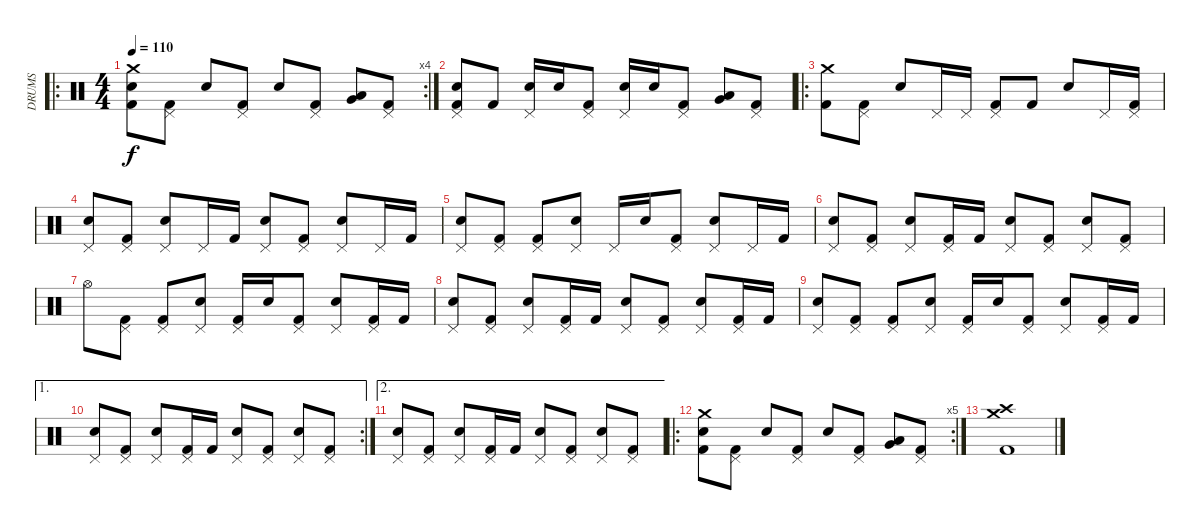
\track ("DRUMS" "DRUMS") {instrument percussion}
\staff {score}
\articulation defaults
\ro
\rc 4
\ts (4 4)
\tempo 110
\clef neutral
\ks c
("Electric Snare (hit)" "Kick (hit) 2" "Crash medium (hit)").8{dy f} ("Kick (hit) 2" "Pedal Hi-Hat (hit)").8 "Electric Snare (hit)".8 ("Kick (hit) 2" "Pedal Hi-Hat (hit)").8 "Electric Snare (hit)".8 ("Kick (hit) 2" "Pedal Hi-Hat (hit)").8 ("Very Low Tom (hit)" "Low Tom (hit)").8 ("Kick (hit) 2" "Pedal Hi-Hat (hit)").8 |
("Electric Snare (hit)" "Kick (hit) 2" "Pedal Hi-Hat (hit)").8 "Kick (hit) 2".8 ("Electric Snare (hit)" "Pedal Hi-Hat (hit)").16 "Electric Snare (hit)".16 ("Kick (hit) 2" "Pedal Hi-Hat (hit)").8 ("Electric Snare (hit)" "Pedal Hi-Hat (hit)").16 "Electric Snare (hit)".16 ("Kick (hit) 2" "Pedal Hi-Hat (hit)").8 ("Very Low Tom (hit)" "Low Tom (hit)").8 ("Kick (hit) 2" "Pedal Hi-Hat (hit)").8 |
\ro
("Kick (hit) 2" "Crash medium (hit)").8 ("Kick (hit) 2" "Pedal Hi-Hat (hit)").8 "Electric Snare (hit)".8 "Pedal Hi-Hat (hit)".16 "Pedal Hi-Hat (hit)".16 ("Kick (hit) 2" "Pedal Hi-Hat (hit)").8 "Kick (hit) 2".8 "Electric Snare (hit)".8 "Pedal Hi-Hat (hit)".16 ("Kick (hit) 2" "Pedal Hi-Hat (hit)").16 |
("Electric Snare (hit)" "Pedal Hi-Hat (hit)").8 ("Kick (hit) 2" "Pedal Hi-Hat (hit)").8 ("Electric Snare (hit)" "Pedal Hi-Hat (hit)").8 "Pedal Hi-Hat (hit)".16 "Kick (hit) 2".16 ("Electric Snare (hit)" "Pedal Hi-Hat (hit)").8 ("Kick (hit) 2" "Pedal Hi-Hat (hit)").8 ("Electric Snare (hit)" "Pedal Hi-Hat (hit)").8 "Pedal Hi-Hat (hit)".16 "Kick (hit) 2".16 |
("Electric Snare (hit)" "Pedal Hi-Hat (hit)").8 ("Pedal Hi-Hat (hit)" "Kick (hit) 2").8 ("Kick (hit) 2" "Pedal Hi-Hat (hit)").8 ("Electric Snare (hit)" "Pedal Hi-Hat (hit)").8 "Pedal Hi-Hat (hit)".16 "Electric Snare (hit)".16 ("Kick (hit) 2" "Pedal Hi-Hat (hit)").8 ("Electric Snare (hit)" "Pedal Hi-Hat (hit)").8 "Pedal Hi-Hat (hit)".16 "Kick (hit) 2".16 |
("Electric Snare (hit)" "Pedal Hi-Hat (hit)").8 ("Kick (hit) 2" "Pedal Hi-Hat (hit)").8 ("Electric Snare (hit)" "Pedal Hi-Hat (hit)").8 ("Kick (hit) 2" "Pedal Hi-Hat (hit)").16 "Kick (hit) 2".16 ("Electric Snare (hit)" "Pedal Hi-Hat (hit)").8 ("Kick (hit) 2" "Pedal Hi-Hat (hit)").8 ("Electric Snare (hit)" "Pedal Hi-Hat (hit)").8 ("Pedal Hi-Hat (hit)" "Kick (hit) 2").8 |
"Hi-Hat (open)".8 ("Kick (hit) 2" "Pedal Hi-Hat (hit)").8 ("Kick (hit) 2" "Pedal Hi-Hat (hit)").8 ("Electric Snare (hit)" "Pedal Hi-Hat (hit)").8 ("Kick (hit) 2" "Pedal Hi-Hat (hit)").16 "Electric Snare (hit)".16 ("Kick (hit) 2" "Pedal Hi-Hat (hit)").8 ("Electric Snare (hit)" "Pedal Hi-Hat (hit)").8 ("Kick (hit) 2" "Pedal Hi-Hat (hit)").16 "Kick (hit) 2".16 |
("Electric Snare (hit)" "Pedal Hi-Hat (hit)").8 ("Kick (hit) 2" "Pedal Hi-Hat (hit)").8 ("Electric Snare (hit)" "Pedal Hi-Hat (hit)").8 ("Kick (hit) 2" "Pedal Hi-Hat (hit)").16 "Kick (hit) 2".16 ("Electric Snare (hit)" "Pedal Hi-Hat (hit)").8 ("Kick (hit) 2" "Pedal Hi-Hat (hit)").8 ("Electric Snare (hit)" "Pedal Hi-Hat (hit)").8 ("Kick (hit) 2" "Pedal Hi-Hat (hit)").16 "Kick (hit) 2".16 |
("Electric Snare (hit)" "Pedal Hi-Hat (hit)").8 ("Kick (hit) 2" "Pedal Hi-Hat (hit)").8 ("Kick (hit) 2" "Pedal Hi-Hat (hit)").8 ("Electric Snare (hit)" "Pedal Hi-Hat (hit)").8 ("Kick (hit) 2" "Pedal Hi-Hat (hit)").16 "Electric Snare (hit)".16 ("Kick (hit) 2" "Pedal Hi-Hat (hit)").8 ("Electric Snare (hit)" "Pedal Hi-Hat (hit)").8 ("Kick (hit) 2" "Pedal Hi-Hat (hit)").16 "Kick (hit) 2".16 |
\ae 1
\rc 2
("Electric Snare (hit)" "Pedal Hi-Hat (hit)").8 ("Kick (hit) 2" "Pedal Hi-Hat (hit)").8 ("Electric Snare (hit)" "Pedal Hi-Hat (hit)").8 ("Kick (hit) 2" "Pedal Hi-Hat (hit)").16 "Kick (hit) 2".16 ("Electric Snare (hit)" "Pedal Hi-Hat (hit)").8 ("Pedal Hi-Hat (hit)" "Kick (hit) 2").8 ("Electric Snare (hit)" "Pedal Hi-Hat (hit)").8 ("Pedal Hi-Hat (hit)" "Kick (hit) 2").8 |
\ae 2
("Electric Snare (hit)" "Pedal Hi-Hat (hit)").8 ("Kick (hit) 2" "Pedal Hi-Hat (hit)").8 ("Electric Snare (hit)" "Pedal Hi-Hat (hit)").8 ("Kick (hit) 2" "Pedal Hi-Hat (hit)").16 "Kick (hit) 2".16 ("Electric Snare (hit)" "Pedal Hi-Hat (hit)").8 ("Pedal Hi-Hat (hit)" "Kick (hit) 2").8 ("Electric Snare (hit)" "Pedal Hi-Hat (hit)").8 ("Pedal Hi-Hat (hit)" "Kick (hit) 2").8 |
\ro
\rc 5
("Electric Snare (hit)" "Kick (hit) 2" "Crash medium (hit)").8 ("Kick (hit) 2" "Pedal Hi-Hat (hit)").8 "Electric Snare (hit)".8 ("Kick (hit) 2" "Pedal Hi-Hat (hit)").8 "Electric Snare (hit)".8 ("Kick (hit) 2" "Pedal Hi-Hat (hit)").8 ("Very Low Tom (hit)" "Low Tom (hit)").8 ("Kick (hit) 2" "Pedal Hi-Hat (hit)").8 |
("Kick (hit) 2" "Crash high (hit)" "Crash medium (hit)").1
